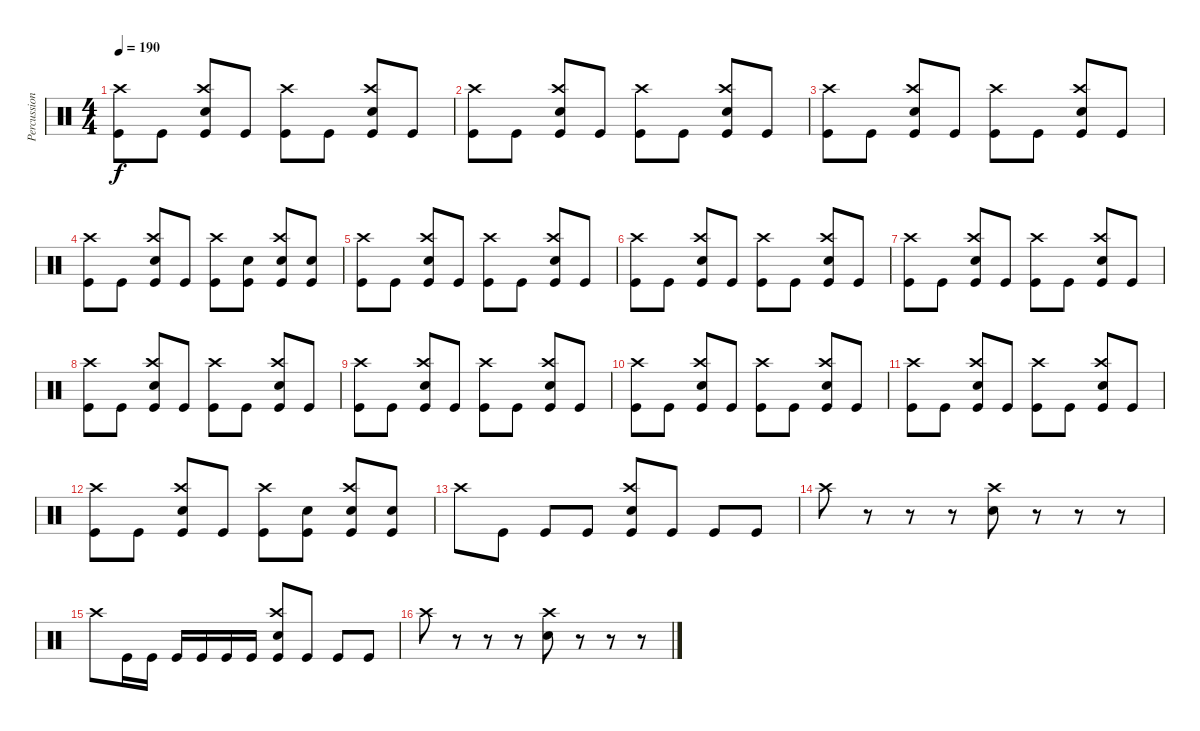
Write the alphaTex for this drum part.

\track ("Percussion" "Percussion") {instrument percussion}
\staff {score}
\articulation defaults
\ts (4 4)
\tempo 190
\clef neutral
\ks c
("Kick (hit)" "Crash high (hit)").8{dy f} "Kick (hit)".8 ("Kick (hit)" "Electric Snare (hit)" "Crash high (hit)").8 "Kick (hit)".8 ("Kick (hit)" "Crash high (hit)").8 "Kick (hit)".8 ("Kick (hit)" "Electric Snare (hit)" "Crash high (hit)").8 "Kick (hit)".8 |
("Kick (hit)" "Crash high (hit)").8 "Kick (hit)".8 ("Kick (hit)" "Electric Snare (hit)" "Crash high (hit)").8 "Kick (hit)".8 ("Kick (hit)" "Crash high (hit)").8 "Kick (hit)".8 ("Kick (hit)" "Electric Snare (hit)" "Crash high (hit)").8 "Kick (hit)".8 |
("Kick (hit)" "Crash high (hit)").8 "Kick (hit)".8 ("Kick (hit)" "Electric Snare (hit)" "Crash high (hit)").8 "Kick (hit)".8 ("Kick (hit)" "Crash high (hit)").8 "Kick (hit)".8 ("Kick (hit)" "Electric Snare (hit)" "Crash high (hit)").8 "Kick (hit)".8 |
("Kick (hit)" "Crash high (hit)").8 "Kick (hit)".8 ("Kick (hit)" "Electric Snare (hit)" "Crash high (hit)").8 "Kick (hit)".8 ("Kick (hit)" "Crash high (hit)").8 ("Kick (hit)" "Electric Snare (hit)").8 ("Kick (hit)" "Electric Snare (hit)" "Crash high (hit)").8 ("Kick (hit)" "Electric Snare (hit)").8 |
("Kick (hit)" "Crash high (hit)").8 "Kick (hit)".8 ("Kick (hit)" "Electric Snare (hit)" "Crash high (hit)").8 "Kick (hit)".8 ("Kick (hit)" "Crash high (hit)").8 "Kick (hit)".8 ("Kick (hit)" "Electric Snare (hit)" "Crash high (hit)").8 "Kick (hit)".8 |
("Kick (hit)" "Crash high (hit)").8 "Kick (hit)".8 ("Kick (hit)" "Electric Snare (hit)" "Crash high (hit)").8 "Kick (hit)".8 ("Kick (hit)" "Crash high (hit)").8 "Kick (hit)".8 ("Kick (hit)" "Electric Snare (hit)" "Crash high (hit)").8 "Kick (hit)".8 |
("Kick (hit)" "Crash high (hit)").8 "Kick (hit)".8 ("Kick (hit)" "Electric Snare (hit)" "Crash high (hit)").8 "Kick (hit)".8 ("Kick (hit)" "Crash high (hit)").8 "Kick (hit)".8 ("Kick (hit)" "Electric Snare (hit)" "Crash high (hit)").8 "Kick (hit)".8 |
("Kick (hit)" "Crash high (hit)").8 "Kick (hit)".8 ("Kick (hit)" "Electric Snare (hit)" "Crash high (hit)").8 "Kick (hit)".8 ("Kick (hit)" "Crash high (hit)").8 "Kick (hit)".8 ("Kick (hit)" "Electric Snare (hit)" "Crash high (hit)").8 "Kick (hit)".8 |
("Kick (hit)" "Crash high (hit)").8 "Kick (hit)".8 ("Kick (hit)" "Electric Snare (hit)" "Crash high (hit)").8 "Kick (hit)".8 ("Kick (hit)" "Crash high (hit)").8 "Kick (hit)".8 ("Kick (hit)" "Electric Snare (hit)" "Crash high (hit)").8 "Kick (hit)".8 |
("Kick (hit)" "Crash high (hit)").8 "Kick (hit)".8 ("Kick (hit)" "Electric Snare (hit)" "Crash high (hit)").8 "Kick (hit)".8 ("Kick (hit)" "Crash high (hit)").8 "Kick (hit)".8 ("Kick (hit)" "Electric Snare (hit)" "Crash high (hit)").8 "Kick (hit)".8 |
("Kick (hit)" "Crash high (hit)").8 "Kick (hit)".8 ("Kick (hit)" "Electric Snare (hit)" "Crash high (hit)").8 "Kick (hit)".8 ("Kick (hit)" "Crash high (hit)").8 "Kick (hit)".8 ("Kick (hit)" "Electric Snare (hit)" "Crash high (hit)").8 "Kick (hit)".8 |
("Kick (hit)" "Crash high (hit)").8 "Kick (hit)".8 ("Kick (hit)" "Electric Snare (hit)" "Crash high (hit)").8 "Kick (hit)".8 ("Kick (hit)" "Crash high (hit)").8 ("Kick (hit)" "Electric Snare (hit)").8 ("Kick (hit)" "Electric Snare (hit)" "Crash high (hit)").8 ("Kick (hit)" "Electric Snare (hit)").8 |
"Crash high (hit)".8 "Kick (hit)".8 "Kick (hit)".8 "Kick (hit)".8 ("Kick (hit)" "Electric Snare (hit)" "Crash high (hit)").8 "Kick (hit)".8 "Kick (hit)".8 "Kick (hit)".8 |
"Crash high (hit)".8 r.8 r.8 r.8 ("Electric Snare (hit)" "Crash high (hit)").8 r.8 r.8 r.8 |
"Crash high (hit)".8 "Kick (hit)".16 "Kick (hit)".16 "Kick (hit)".16 "Kick (hit)".16 "Kick (hit)".16 "Kick (hit)".16 ("Kick (hit)" "Electric Snare (hit)" "Crash high (hit)").8 "Kick (hit)".8 "Kick (hit)".8 "Kick (hit)".8 |
"Crash high (hit)".8 r.8 r.8 r.8 ("Electric Snare (hit)" "Crash high (hit)").8 r.8 r.8 r.8
